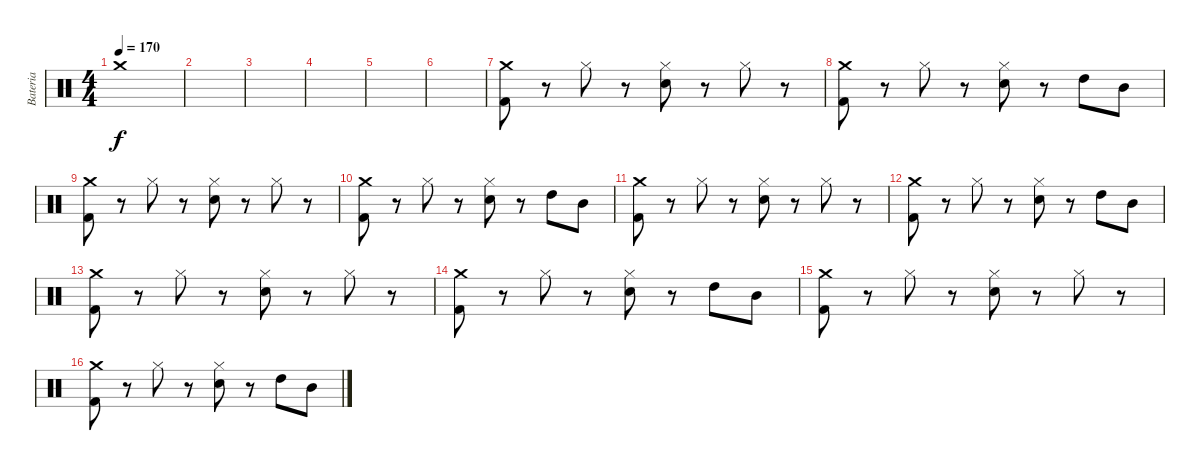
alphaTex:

\track ("Bateria" "Bateria") {instrument percussion}
\staff {score}
\articulation defaults
\ts (4 4)
\tempo 170
\clef neutral
\ks c "Crash medium (hit)".1{dy f}
|
|
|
|
|
|
("Crash medium (hit)" "Kick (hit) 2").8 r.8 "Hi-Hat (closed)".8 r.8 ("Hi-Hat (closed)" "Electric Snare (hit)").8 r.8 "Hi-Hat (closed)".8 r.8 |
("Crash medium (hit)" "Kick (hit) 2").8 r.8 "Hi-Hat (closed)".8 r.8 ("Hi-Hat (closed)" "Electric Snare (hit)").8 r.8 "High Tom (hit)".8 "Mid Tom (hit)".8 |
("Crash medium (hit)" "Kick (hit) 2").8 r.8 "Hi-Hat (closed)".8 r.8 ("Hi-Hat (closed)" "Electric Snare (hit)").8 r.8 "Hi-Hat (closed)".8 r.8 |
("Crash medium (hit)" "Kick (hit) 2").8 r.8 "Hi-Hat (closed)".8 r.8 ("Hi-Hat (closed)" "Electric Snare (hit)").8 r.8 "High Tom (hit)".8 "Mid Tom (hit)".8 |
("Crash medium (hit)" "Kick (hit) 2").8 r.8 "Hi-Hat (closed)".8 r.8 ("Hi-Hat (closed)" "Electric Snare (hit)").8 r.8 "Hi-Hat (closed)".8 r.8 |
("Crash medium (hit)" "Kick (hit) 2").8 r.8 "Hi-Hat (closed)".8 r.8 ("Hi-Hat (closed)" "Electric Snare (hit)").8 r.8 "High Tom (hit)".8 "Mid Tom (hit)".8 |
("Crash medium (hit)" "Kick (hit) 2").8 r.8 "Hi-Hat (closed)".8 r.8 ("Hi-Hat (closed)" "Electric Snare (hit)").8 r.8 "Hi-Hat (closed)".8 r.8 |
("Crash medium (hit)" "Kick (hit) 2").8 r.8 "Hi-Hat (closed)".8 r.8 ("Hi-Hat (closed)" "Electric Snare (hit)").8 r.8 "High Tom (hit)".8 "Mid Tom (hit)".8 |
("Crash medium (hit)" "Kick (hit) 2").8 r.8 "Hi-Hat (closed)".8 r.8 ("Hi-Hat (closed)" "Electric Snare (hit)").8 r.8 "Hi-Hat (closed)".8 r.8 |
("Crash medium (hit)" "Kick (hit) 2").8 r.8 "Hi-Hat (closed)".8 r.8 ("Hi-Hat (closed)" "Electric Snare (hit)").8 r.8 "High Tom (hit)".8 "Mid Tom (hit)".8
